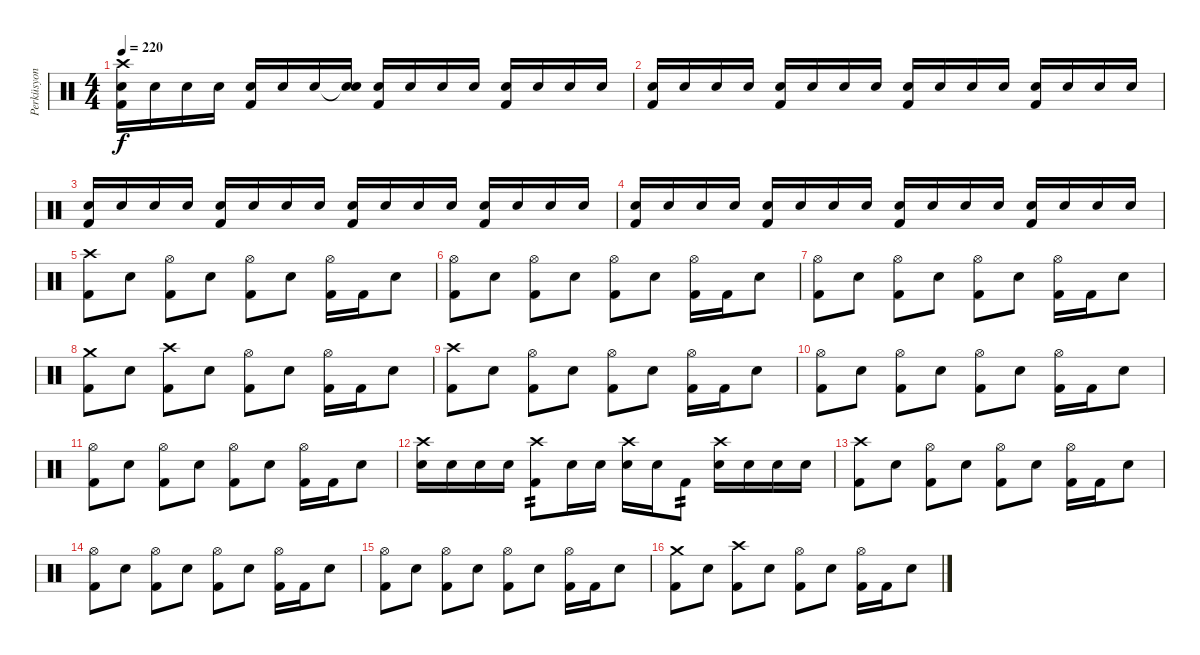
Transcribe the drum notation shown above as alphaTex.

\track ("Perküsyon" "Perküsyon") {instrument percussion}
\staff {score}
\articulation defaults
\ts (4 4)
\tempo 220
\clef neutral
\ks c
("Crash high (hit)" "Electric Snare (hit)" "Kick (hit) 2").16{dy f} "Electric Snare (hit)".16 "Electric Snare (hit)".16 "Electric Snare (hit)".16 ("Electric Snare (hit)" "Kick (hit) 2").16 "Electric Snare (hit)".16 "Electric Snare (hit)".16 ("Snare (hit)"{t} "Electric Snare (hit)").16 ("Electric Snare (hit)" "Kick (hit) 2").16 "Electric Snare (hit)".16 "Electric Snare (hit)".16 "Electric Snare (hit)".16 ("Electric Snare (hit)" "Kick (hit) 2").16 "Electric Snare (hit)".16 "Electric Snare (hit)".16 "Electric Snare (hit)".16 |
("Electric Snare (hit)" "Kick (hit) 2").16 "Electric Snare (hit)".16 "Electric Snare (hit)".16 "Electric Snare (hit)".16 ("Electric Snare (hit)" "Kick (hit) 2").16 "Electric Snare (hit)".16 "Electric Snare (hit)".16 "Electric Snare (hit)".16 ("Electric Snare (hit)" "Kick (hit) 2").16 "Electric Snare (hit)".16 "Electric Snare (hit)".16 "Electric Snare (hit)".16 ("Electric Snare (hit)" "Kick (hit) 2").16 "Electric Snare (hit)".16 "Electric Snare (hit)".16 "Electric Snare (hit)".16 |
("Electric Snare (hit)" "Kick (hit) 2").16 "Electric Snare (hit)".16 "Electric Snare (hit)".16 "Electric Snare (hit)".16 ("Electric Snare (hit)" "Kick (hit) 2").16 "Electric Snare (hit)".16 "Electric Snare (hit)".16 "Electric Snare (hit)".16 ("Electric Snare (hit)" "Kick (hit) 2").16 "Electric Snare (hit)".16 "Electric Snare (hit)".16 "Electric Snare (hit)".16 ("Electric Snare (hit)" "Kick (hit) 2").16 "Electric Snare (hit)".16 "Electric Snare (hit)".16 "Electric Snare (hit)".16 |
("Electric Snare (hit)" "Kick (hit) 2").16 "Electric Snare (hit)".16 "Electric Snare (hit)".16 "Electric Snare (hit)".16 ("Electric Snare (hit)" "Kick (hit) 2").16 "Electric Snare (hit)".16 "Electric Snare (hit)".16 "Electric Snare (hit)".16 ("Electric Snare (hit)" "Kick (hit) 2").16 "Electric Snare (hit)".16 "Electric Snare (hit)".16 "Electric Snare (hit)".16 ("Electric Snare (hit)" "Kick (hit) 2").16 "Electric Snare (hit)".16 "Electric Snare (hit)".16 "Electric Snare (hit)".16 |
("Crash high (hit)" "Kick (hit) 2").8 "Electric Snare (hit)".8 ("Hi-Hat (open)" "Kick (hit) 2").8 "Electric Snare (hit)".8 ("Hi-Hat (open)" "Kick (hit) 2").8 "Electric Snare (hit)".8 ("Hi-Hat (open)" "Kick (hit) 2").16 "Kick (hit) 2".16 "Electric Snare (hit)".8 |
("Hi-Hat (open)" "Kick (hit) 2").8 "Electric Snare (hit)".8 ("Hi-Hat (open)" "Kick (hit) 2").8 "Electric Snare (hit)".8 ("Hi-Hat (open)" "Kick (hit) 2").8 "Electric Snare (hit)".8 ("Hi-Hat (open)" "Kick (hit) 2").16 "Kick (hit) 2".16 "Electric Snare (hit)".8 |
("Hi-Hat (open)" "Kick (hit) 2").8 "Electric Snare (hit)".8 ("Hi-Hat (open)" "Kick (hit) 2").8 "Electric Snare (hit)".8 ("Hi-Hat (open)" "Kick (hit) 2").8 "Electric Snare (hit)".8 ("Hi-Hat (open)" "Kick (hit) 2").16 "Kick (hit) 2".16 "Electric Snare (hit)".8 |
("Crash medium (hit)" "Kick (hit) 2").8 "Electric Snare (hit)".8 ("Crash high (hit)" "Kick (hit) 2").8 "Electric Snare (hit)".8 ("Hi-Hat (open)" "Kick (hit) 2").8 "Electric Snare (hit)".8 ("Hi-Hat (open)" "Kick (hit) 2").16 "Kick (hit) 2".16 "Electric Snare (hit)".8 |
("Crash high (hit)" "Kick (hit) 2").8 "Electric Snare (hit)".8 ("Hi-Hat (open)" "Kick (hit) 2").8 "Electric Snare (hit)".8 ("Hi-Hat (open)" "Kick (hit) 2").8 "Electric Snare (hit)".8 ("Hi-Hat (open)" "Kick (hit) 2").16 "Kick (hit) 2".16 "Electric Snare (hit)".8 |
("Hi-Hat (open)" "Kick (hit) 2").8 "Electric Snare (hit)".8 ("Hi-Hat (open)" "Kick (hit) 2").8 "Electric Snare (hit)".8 ("Hi-Hat (open)" "Kick (hit) 2").8 "Electric Snare (hit)".8 ("Hi-Hat (open)" "Kick (hit) 2").16 "Kick (hit) 2".16 "Electric Snare (hit)".8 |
("Hi-Hat (open)" "Kick (hit) 2").8 "Electric Snare (hit)".8 ("Hi-Hat (open)" "Kick (hit) 2").8 "Electric Snare (hit)".8 ("Hi-Hat (open)" "Kick (hit) 2").8 "Electric Snare (hit)".8 ("Hi-Hat (open)" "Kick (hit) 2").16 "Kick (hit) 2".16 "Electric Snare (hit)".8 |
("Crash high (hit)" "Electric Snare (hit)").16 "Electric Snare (hit)".16 "Electric Snare (hit)".16 "Electric Snare (hit)".16 ("Crash high (hit)" "Kick (hit) 2").8{tp 2} "Electric Snare (hit)".16 "Electric Snare (hit)".16 ("Crash high (hit)" "Electric Snare (hit)").16 "Electric Snare (hit)".16 "Kick (hit) 2".8{tp 2} ("Crash high (hit)" "Electric Snare (hit)").16 "Electric Snare (hit)".16 "Electric Snare (hit)".16 "Electric Snare (hit)".16 |
("Crash high (hit)" "Kick (hit) 2").8 "Electric Snare (hit)".8 ("Hi-Hat (open)" "Kick (hit) 2").8 "Electric Snare (hit)".8 ("Hi-Hat (open)" "Kick (hit) 2").8 "Electric Snare (hit)".8 ("Hi-Hat (open)" "Kick (hit) 2").16 "Kick (hit) 2".16 "Electric Snare (hit)".8 |
("Hi-Hat (open)" "Kick (hit) 2").8 "Electric Snare (hit)".8 ("Hi-Hat (open)" "Kick (hit) 2").8 "Electric Snare (hit)".8 ("Hi-Hat (open)" "Kick (hit) 2").8 "Electric Snare (hit)".8 ("Hi-Hat (open)" "Kick (hit) 2").16 "Kick (hit) 2".16 "Electric Snare (hit)".8 |
("Hi-Hat (open)" "Kick (hit) 2").8 "Electric Snare (hit)".8 ("Hi-Hat (open)" "Kick (hit) 2").8 "Electric Snare (hit)".8 ("Hi-Hat (open)" "Kick (hit) 2").8 "Electric Snare (hit)".8 ("Hi-Hat (open)" "Kick (hit) 2").16 "Kick (hit) 2".16 "Electric Snare (hit)".8 |
("Crash medium (hit)" "Kick (hit) 2").8 "Electric Snare (hit)".8 ("Crash high (hit)" "Kick (hit) 2").8 "Electric Snare (hit)".8 ("Hi-Hat (open)" "Kick (hit) 2").8 "Electric Snare (hit)".8 ("Hi-Hat (open)" "Kick (hit) 2").16 "Kick (hit) 2".16 "Electric Snare (hit)".8
